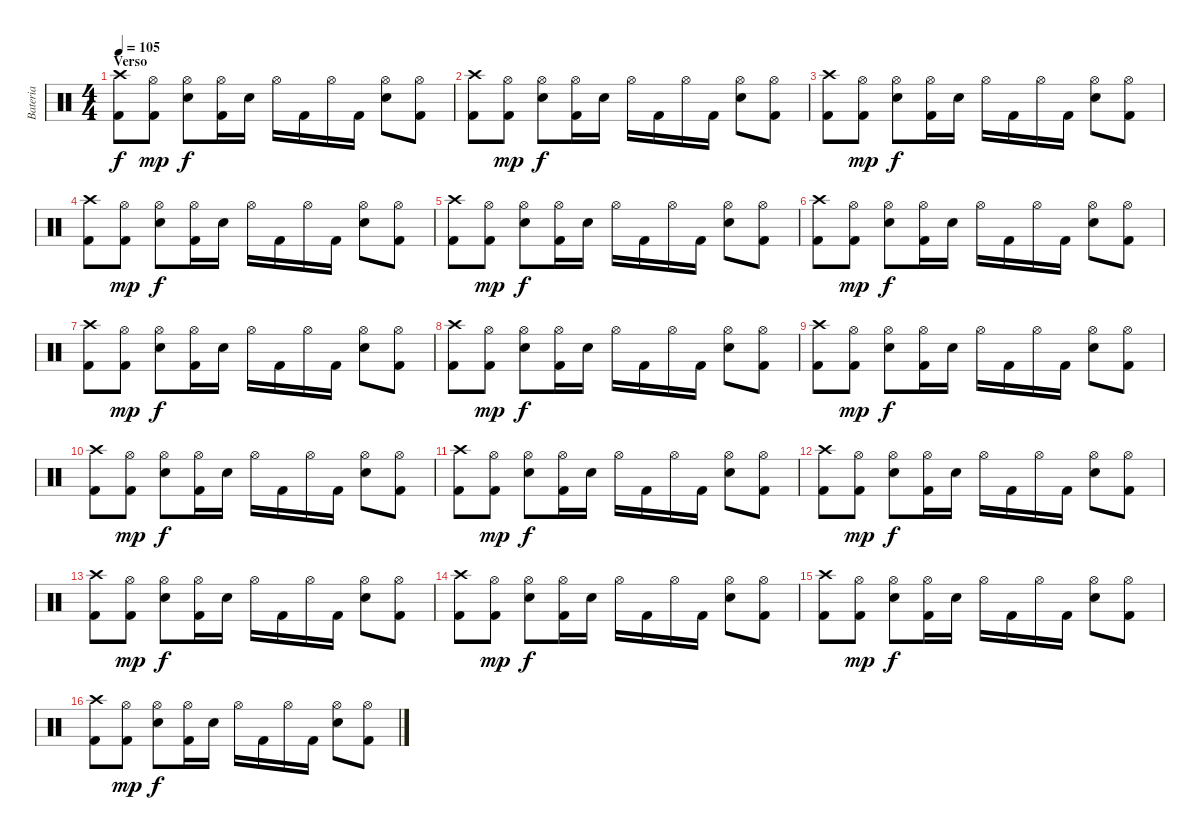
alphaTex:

\track ("Bateria" "Bateria") {instrument percussion}
\staff {score}
\articulation defaults
\ts (4 4)
\section ("" "Verso")
\tempo 105
\clef neutral
\ks c
("Kick (hit) 2" "Crash high (hit)").8{dy f} ("Kick (hit) 2" "Hi-Hat (open)").8{dy mp} ("Snare (hit) 2" "Hi-Hat (open)").8{dy f} ("Kick (hit) 2" "Hi-Hat (open)").16 "Snare (hit) 2".16 "Hi-Hat (open)".16 "Kick (hit) 2".16 "Hi-Hat (open)".16 "Kick (hit) 2".16 ("Snare (hit) 2" "Hi-Hat (open)").8 ("Kick (hit) 2" "Hi-Hat (open)").8 |
("Kick (hit) 2" "Crash high (hit)").8 ("Kick (hit) 2" "Hi-Hat (open)").8{dy mp} ("Snare (hit) 2" "Hi-Hat (open)").8{dy f} ("Kick (hit) 2" "Hi-Hat (open)").16 "Snare (hit) 2".16 "Hi-Hat (open)".16 "Kick (hit) 2".16 "Hi-Hat (open)".16 "Kick (hit) 2".16 ("Snare (hit) 2" "Hi-Hat (open)").8 ("Kick (hit) 2" "Hi-Hat (open)").8 |
("Kick (hit) 2" "Crash high (hit)").8 ("Kick (hit) 2" "Hi-Hat (open)").8{dy mp} ("Snare (hit) 2" "Hi-Hat (open)").8{dy f} ("Kick (hit) 2" "Hi-Hat (open)").16 "Snare (hit) 2".16 "Hi-Hat (open)".16 "Kick (hit) 2".16 "Hi-Hat (open)".16 "Kick (hit) 2".16 ("Snare (hit) 2" "Hi-Hat (open)").8 ("Kick (hit) 2" "Hi-Hat (open)").8 |
("Kick (hit) 2" "Crash high (hit)").8 ("Kick (hit) 2" "Hi-Hat (open)").8{dy mp} ("Snare (hit) 2" "Hi-Hat (open)").8{dy f} ("Kick (hit) 2" "Hi-Hat (open)").16 "Snare (hit) 2".16 "Hi-Hat (open)".16 "Kick (hit) 2".16 "Hi-Hat (open)".16 "Kick (hit) 2".16 ("Snare (hit) 2" "Hi-Hat (open)").8 ("Kick (hit) 2" "Hi-Hat (open)").8 |
("Kick (hit) 2" "Crash high (hit)").8 ("Kick (hit) 2" "Hi-Hat (open)").8{dy mp} ("Snare (hit) 2" "Hi-Hat (open)").8{dy f} ("Kick (hit) 2" "Hi-Hat (open)").16 "Snare (hit) 2".16 "Hi-Hat (open)".16 "Kick (hit) 2".16 "Hi-Hat (open)".16 "Kick (hit) 2".16 ("Snare (hit) 2" "Hi-Hat (open)").8 ("Kick (hit) 2" "Hi-Hat (open)").8 |
("Kick (hit) 2" "Crash high (hit)").8 ("Kick (hit) 2" "Hi-Hat (open)").8{dy mp} ("Snare (hit) 2" "Hi-Hat (open)").8{dy f} ("Kick (hit) 2" "Hi-Hat (open)").16 "Snare (hit) 2".16 "Hi-Hat (open)".16 "Kick (hit) 2".16 "Hi-Hat (open)".16 "Kick (hit) 2".16 ("Snare (hit) 2" "Hi-Hat (open)").8 ("Kick (hit) 2" "Hi-Hat (open)").8 |
("Kick (hit) 2" "Crash high (hit)").8 ("Kick (hit) 2" "Hi-Hat (open)").8{dy mp} ("Snare (hit) 2" "Hi-Hat (open)").8{dy f} ("Kick (hit) 2" "Hi-Hat (open)").16 "Snare (hit) 2".16 "Hi-Hat (open)".16 "Kick (hit) 2".16 "Hi-Hat (open)".16 "Kick (hit) 2".16 ("Snare (hit) 2" "Hi-Hat (open)").8 ("Kick (hit) 2" "Hi-Hat (open)").8 |
("Kick (hit) 2" "Crash high (hit)").8 ("Kick (hit) 2" "Hi-Hat (open)").8{dy mp} ("Snare (hit) 2" "Hi-Hat (open)").8{dy f} ("Kick (hit) 2" "Hi-Hat (open)").16 "Snare (hit) 2".16 "Hi-Hat (open)".16 "Kick (hit) 2".16 "Hi-Hat (open)".16 "Kick (hit) 2".16 ("Snare (hit) 2" "Hi-Hat (open)").8 ("Kick (hit) 2" "Hi-Hat (open)").8 |
("Kick (hit) 2" "Crash high (hit)").8 ("Kick (hit) 2" "Hi-Hat (open)").8{dy mp} ("Snare (hit) 2" "Hi-Hat (open)").8{dy f} ("Kick (hit) 2" "Hi-Hat (open)").16 "Snare (hit) 2".16 "Hi-Hat (open)".16 "Kick (hit) 2".16 "Hi-Hat (open)".16 "Kick (hit) 2".16 ("Snare (hit) 2" "Hi-Hat (open)").8 ("Kick (hit) 2" "Hi-Hat (open)").8 |
("Kick (hit) 2" "Crash high (hit)").8 ("Kick (hit) 2" "Hi-Hat (open)").8{dy mp} ("Snare (hit) 2" "Hi-Hat (open)").8{dy f} ("Kick (hit) 2" "Hi-Hat (open)").16 "Snare (hit) 2".16 "Hi-Hat (open)".16 "Kick (hit) 2".16 "Hi-Hat (open)".16 "Kick (hit) 2".16 ("Snare (hit) 2" "Hi-Hat (open)").8 ("Kick (hit) 2" "Hi-Hat (open)").8 |
("Kick (hit) 2" "Crash high (hit)").8 ("Kick (hit) 2" "Hi-Hat (open)").8{dy mp} ("Snare (hit) 2" "Hi-Hat (open)").8{dy f} ("Kick (hit) 2" "Hi-Hat (open)").16 "Snare (hit) 2".16 "Hi-Hat (open)".16 "Kick (hit) 2".16 "Hi-Hat (open)".16 "Kick (hit) 2".16 ("Snare (hit) 2" "Hi-Hat (open)").8 ("Kick (hit) 2" "Hi-Hat (open)").8 |
("Kick (hit) 2" "Crash high (hit)").8 ("Kick (hit) 2" "Hi-Hat (open)").8{dy mp} ("Snare (hit) 2" "Hi-Hat (open)").8{dy f} ("Kick (hit) 2" "Hi-Hat (open)").16 "Snare (hit) 2".16 "Hi-Hat (open)".16 "Kick (hit) 2".16 "Hi-Hat (open)".16 "Kick (hit) 2".16 ("Snare (hit) 2" "Hi-Hat (open)").8 ("Kick (hit) 2" "Hi-Hat (open)").8 |
("Kick (hit) 2" "Crash high (hit)").8 ("Kick (hit) 2" "Hi-Hat (open)").8{dy mp} ("Snare (hit) 2" "Hi-Hat (open)").8{dy f} ("Kick (hit) 2" "Hi-Hat (open)").16 "Snare (hit) 2".16 "Hi-Hat (open)".16 "Kick (hit) 2".16 "Hi-Hat (open)".16 "Kick (hit) 2".16 ("Snare (hit) 2" "Hi-Hat (open)").8 ("Kick (hit) 2" "Hi-Hat (open)").8 |
("Kick (hit) 2" "Crash high (hit)").8 ("Kick (hit) 2" "Hi-Hat (open)").8{dy mp} ("Snare (hit) 2" "Hi-Hat (open)").8{dy f} ("Kick (hit) 2" "Hi-Hat (open)").16 "Snare (hit) 2".16 "Hi-Hat (open)".16 "Kick (hit) 2".16 "Hi-Hat (open)".16 "Kick (hit) 2".16 ("Snare (hit) 2" "Hi-Hat (open)").8 ("Kick (hit) 2" "Hi-Hat (open)").8 |
("Kick (hit) 2" "Crash high (hit)").8 ("Kick (hit) 2" "Hi-Hat (open)").8{dy mp} ("Snare (hit) 2" "Hi-Hat (open)").8{dy f} ("Kick (hit) 2" "Hi-Hat (open)").16 "Snare (hit) 2".16 "Hi-Hat (open)".16 "Kick (hit) 2".16 "Hi-Hat (open)".16 "Kick (hit) 2".16 ("Snare (hit) 2" "Hi-Hat (open)").8 ("Kick (hit) 2" "Hi-Hat (open)").8 |
("Kick (hit) 2" "Crash high (hit)").8 ("Kick (hit) 2" "Hi-Hat (open)").8{dy mp} ("Snare (hit) 2" "Hi-Hat (open)").8{dy f} ("Kick (hit) 2" "Hi-Hat (open)").16 "Snare (hit) 2".16 "Hi-Hat (open)".16 "Kick (hit) 2".16 "Hi-Hat (open)".16 "Kick (hit) 2".16 ("Snare (hit) 2" "Hi-Hat (open)").8 ("Kick (hit) 2" "Hi-Hat (open)").8
